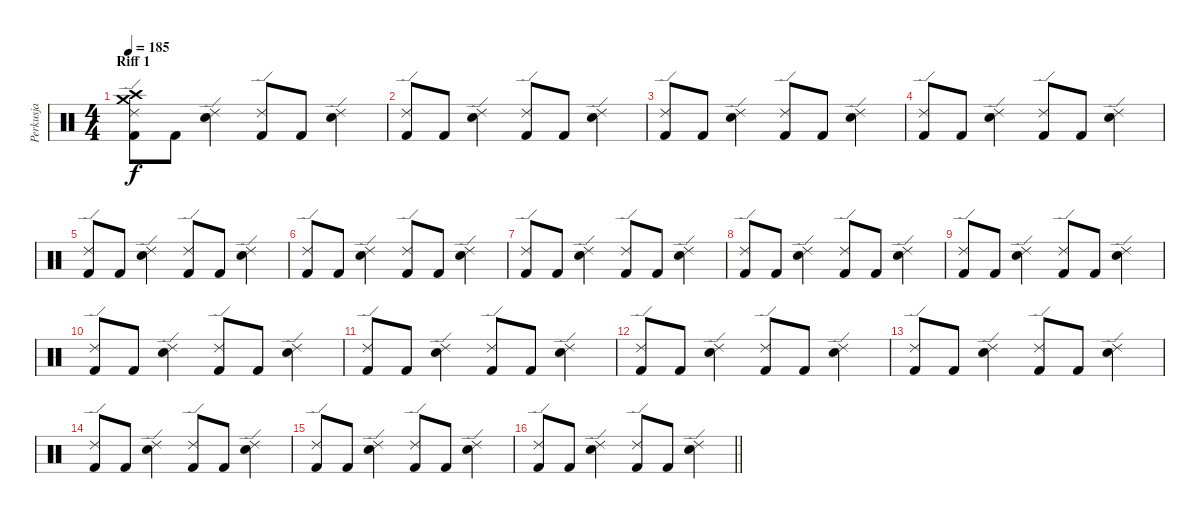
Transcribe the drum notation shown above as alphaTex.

\track ("Perkusja" "Perkusja") {instrument percussion}
\staff {score}
\articulation defaults
\ts (4 4)
\section ("" "Riff 1")
\tempo 185
\clef neutral
\ks c
("Crash medium (hit)" "Crash high (hit)" "Ride (edge) 2" "Kick (hit) 2").8{dy f} "Kick (hit) 2".8 ("Ride (edge) 2" "Electric Snare (hit)").4 ("Ride (edge) 2" "Kick (hit) 2").8 "Kick (hit) 2".8 ("Ride (edge) 2" "Electric Snare (hit)").4 |
("Ride (edge) 2" "Kick (hit) 2").8 "Kick (hit) 2".8 ("Ride (edge) 2" "Electric Snare (hit)").4 ("Ride (edge) 2" "Kick (hit) 2").8 "Kick (hit) 2".8 ("Ride (edge) 2" "Electric Snare (hit)").4 |
("Ride (edge) 2" "Kick (hit) 2").8 "Kick (hit) 2".8 ("Ride (edge) 2" "Electric Snare (hit)").4 ("Ride (edge) 2" "Kick (hit) 2").8 "Kick (hit) 2".8 ("Ride (edge) 2" "Electric Snare (hit)").4 |
("Ride (edge) 2" "Kick (hit) 2").8 "Kick (hit) 2".8 ("Ride (edge) 2" "Electric Snare (hit)").4 ("Ride (edge) 2" "Kick (hit) 2").8 "Kick (hit) 2".8 ("Ride (edge) 2" "Electric Snare (hit)").4 |
("Ride (edge) 2" "Kick (hit) 2").8 "Kick (hit) 2".8 ("Ride (edge) 2" "Electric Snare (hit)").4 ("Ride (edge) 2" "Kick (hit) 2").8 "Kick (hit) 2".8 ("Ride (edge) 2" "Electric Snare (hit)").4 |
("Ride (edge) 2" "Kick (hit) 2").8 "Kick (hit) 2".8 ("Ride (edge) 2" "Electric Snare (hit)").4 ("Ride (edge) 2" "Kick (hit) 2").8 "Kick (hit) 2".8 ("Ride (edge) 2" "Electric Snare (hit)").4 |
("Ride (edge) 2" "Kick (hit) 2").8 "Kick (hit) 2".8 ("Ride (edge) 2" "Electric Snare (hit)").4 ("Ride (edge) 2" "Kick (hit) 2").8 "Kick (hit) 2".8 ("Ride (edge) 2" "Electric Snare (hit)").4 |
("Ride (edge) 2" "Kick (hit) 2").8 "Kick (hit) 2".8 ("Ride (edge) 2" "Electric Snare (hit)").4 ("Ride (edge) 2" "Kick (hit) 2").8 "Kick (hit) 2".8 ("Ride (edge) 2" "Electric Snare (hit)").4 |
("Ride (edge) 2" "Kick (hit) 2").8 "Kick (hit) 2".8 ("Ride (edge) 2" "Electric Snare (hit)").4 ("Ride (edge) 2" "Kick (hit) 2").8 "Kick (hit) 2".8 ("Ride (edge) 2" "Electric Snare (hit)").4 |
("Ride (edge) 2" "Kick (hit) 2").8 "Kick (hit) 2".8 ("Ride (edge) 2" "Electric Snare (hit)").4 ("Ride (edge) 2" "Kick (hit) 2").8 "Kick (hit) 2".8 ("Ride (edge) 2" "Electric Snare (hit)").4 |
("Ride (edge) 2" "Kick (hit) 2").8 "Kick (hit) 2".8 ("Ride (edge) 2" "Electric Snare (hit)").4 ("Ride (edge) 2" "Kick (hit) 2").8 "Kick (hit) 2".8 ("Ride (edge) 2" "Electric Snare (hit)").4 |
("Ride (edge) 2" "Kick (hit) 2").8 "Kick (hit) 2".8 ("Ride (edge) 2" "Electric Snare (hit)").4 ("Ride (edge) 2" "Kick (hit) 2").8 "Kick (hit) 2".8 ("Ride (edge) 2" "Electric Snare (hit)").4 |
("Ride (edge) 2" "Kick (hit) 2").8 "Kick (hit) 2".8 ("Ride (edge) 2" "Electric Snare (hit)").4 ("Ride (edge) 2" "Kick (hit) 2").8 "Kick (hit) 2".8 ("Ride (edge) 2" "Electric Snare (hit)").4 |
("Ride (edge) 2" "Kick (hit) 2").8 "Kick (hit) 2".8 ("Ride (edge) 2" "Electric Snare (hit)").4 ("Ride (edge) 2" "Kick (hit) 2").8 "Kick (hit) 2".8 ("Ride (edge) 2" "Electric Snare (hit)").4 |
("Ride (edge) 2" "Kick (hit) 2").8 "Kick (hit) 2".8 ("Ride (edge) 2" "Electric Snare (hit)").4 ("Ride (edge) 2" "Kick (hit) 2").8 "Kick (hit) 2".8 ("Ride (edge) 2" "Electric Snare (hit)").4 |
\barLineRight lightlight
("Ride (edge) 2" "Kick (hit) 2").8 "Kick (hit) 2".8 ("Ride (edge) 2" "Electric Snare (hit)").4 ("Ride (edge) 2" "Kick (hit) 2").8 "Kick (hit) 2".8 ("Ride (edge) 2" "Electric Snare (hit)").4
